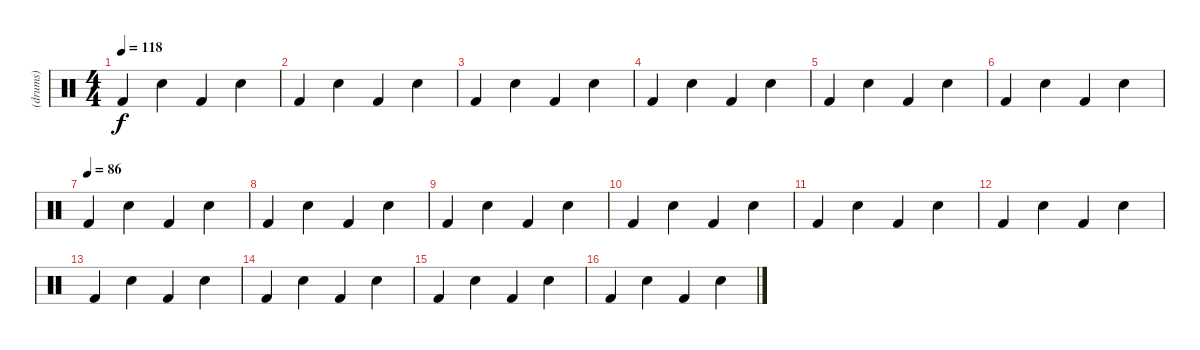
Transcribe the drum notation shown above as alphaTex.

\track ("(drums)" "(drums)") {instrument percussion}
\staff {score}
\articulation defaults
\ts (4 4)
\tempo 118
\clef neutral
\ks c "Kick (hit) 2".4{dy f} "Snare (hit) 2".4 "Kick (hit) 2".4 "Snare (hit) 2".4
|
"Kick (hit) 2".4 "Snare (hit) 2".4 "Kick (hit) 2".4 "Snare (hit) 2".4 |
"Kick (hit) 2".4 "Snare (hit) 2".4 "Kick (hit) 2".4 "Snare (hit) 2".4 |
"Kick (hit) 2".4 "Snare (hit) 2".4 "Kick (hit) 2".4 "Snare (hit) 2".4 |
"Kick (hit) 2".4 "Snare (hit) 2".4 "Kick (hit) 2".4 "Snare (hit) 2".4 |
"Kick (hit) 2".4 "Snare (hit) 2".4 "Kick (hit) 2".4 "Snare (hit) 2".4 |
\tempo (86)
"Kick (hit) 2".4 "Snare (hit) 2".4 "Kick (hit) 2".4 "Snare (hit) 2".4 |
"Kick (hit) 2".4 "Snare (hit) 2".4 "Kick (hit) 2".4 "Snare (hit) 2".4 |
"Kick (hit) 2".4 "Snare (hit) 2".4 "Kick (hit) 2".4 "Snare (hit) 2".4 |
"Kick (hit) 2".4 "Snare (hit) 2".4 "Kick (hit) 2".4 "Snare (hit) 2".4 |
"Kick (hit) 2".4 "Snare (hit) 2".4 "Kick (hit) 2".4 "Snare (hit) 2".4 |
"Kick (hit) 2".4 "Snare (hit) 2".4 "Kick (hit) 2".4 "Snare (hit) 2".4 |
"Kick (hit) 2".4 "Snare (hit) 2".4 "Kick (hit) 2".4 "Snare (hit) 2".4 |
"Kick (hit) 2".4 "Snare (hit) 2".4 "Kick (hit) 2".4 "Snare (hit) 2".4 |
"Kick (hit) 2".4 "Snare (hit) 2".4 "Kick (hit) 2".4 "Snare (hit) 2".4 |
"Kick (hit) 2".4 "Snare (hit) 2".4 "Kick (hit) 2".4 "Snare (hit) 2".4
